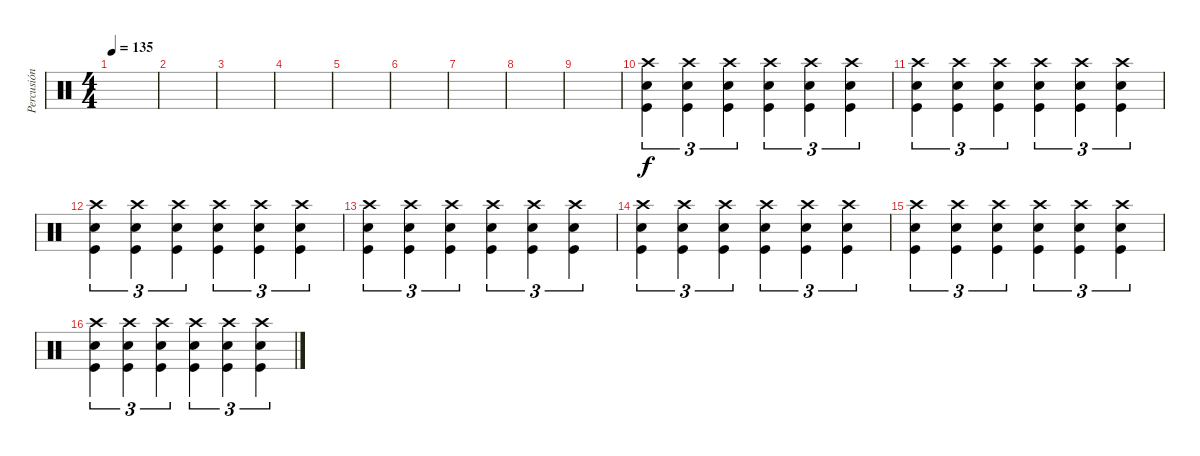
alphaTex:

\track ("Percusión" "Percusión") {instrument percussion}
\staff {score}
\articulation defaults
\ts (4 4)
\tempo 135
\clef neutral
\ks c
|
|
|
|
|
|
|
|
|
("Crash high (hit)" "Electric Snare (hit)" "Kick (hit)").4{tu (3 2)} ("Crash high (hit)" "Electric Snare (hit)" "Kick (hit)").4{tu (3 2)} ("Crash high (hit)" "Electric Snare (hit)" "Kick (hit)").4{tu (3 2)} ("Crash high (hit)" "Electric Snare (hit)" "Kick (hit)").4{tu (3 2)} ("Crash high (hit)" "Electric Snare (hit)" "Kick (hit)").4{tu (3 2)} ("Crash high (hit)" "Electric Snare (hit)" "Kick (hit)").4{tu (3 2)} |
("Crash high (hit)" "Electric Snare (hit)" "Kick (hit)").4{tu (3 2)} ("Crash high (hit)" "Electric Snare (hit)" "Kick (hit)").4{tu (3 2)} ("Crash high (hit)" "Electric Snare (hit)" "Kick (hit)").4{tu (3 2)} ("Crash high (hit)" "Electric Snare (hit)" "Kick (hit)").4{tu (3 2)} ("Crash high (hit)" "Electric Snare (hit)" "Kick (hit)").4{tu (3 2)} ("Crash high (hit)" "Electric Snare (hit)" "Kick (hit)").4{tu (3 2)} |
("Crash high (hit)" "Electric Snare (hit)" "Kick (hit)").4{tu (3 2)} ("Crash high (hit)" "Electric Snare (hit)" "Kick (hit)").4{tu (3 2)} ("Crash high (hit)" "Electric Snare (hit)" "Kick (hit)").4{tu (3 2)} ("Crash high (hit)" "Electric Snare (hit)" "Kick (hit)").4{tu (3 2)} ("Crash high (hit)" "Electric Snare (hit)" "Kick (hit)").4{tu (3 2)} ("Crash high (hit)" "Electric Snare (hit)" "Kick (hit)").4{tu (3 2)} |
("Crash high (hit)" "Electric Snare (hit)" "Kick (hit)").4{tu (3 2)} ("Crash high (hit)" "Electric Snare (hit)" "Kick (hit)").4{tu (3 2)} ("Crash high (hit)" "Electric Snare (hit)" "Kick (hit)").4{tu (3 2)} ("Crash high (hit)" "Electric Snare (hit)" "Kick (hit)").4{tu (3 2)} ("Crash high (hit)" "Electric Snare (hit)" "Kick (hit)").4{tu (3 2)} ("Crash high (hit)" "Electric Snare (hit)" "Kick (hit)").4{tu (3 2)} |
("Crash high (hit)" "Electric Snare (hit)" "Kick (hit)").4{tu (3 2)} ("Crash high (hit)" "Electric Snare (hit)" "Kick (hit)").4{tu (3 2)} ("Crash high (hit)" "Electric Snare (hit)" "Kick (hit)").4{tu (3 2)} ("Crash high (hit)" "Electric Snare (hit)" "Kick (hit)").4{tu (3 2)} ("Crash high (hit)" "Electric Snare (hit)" "Kick (hit)").4{tu (3 2)} ("Crash high (hit)" "Electric Snare (hit)" "Kick (hit)").4{tu (3 2)} |
("Crash high (hit)" "Electric Snare (hit)" "Kick (hit)").4{tu (3 2)} ("Crash high (hit)" "Electric Snare (hit)" "Kick (hit)").4{tu (3 2)} ("Crash high (hit)" "Electric Snare (hit)" "Kick (hit)").4{tu (3 2)} ("Crash high (hit)" "Electric Snare (hit)" "Kick (hit)").4{tu (3 2)} ("Crash high (hit)" "Electric Snare (hit)" "Kick (hit)").4{tu (3 2)} ("Crash high (hit)" "Electric Snare (hit)" "Kick (hit)").4{tu (3 2)} |
("Crash high (hit)" "Electric Snare (hit)" "Kick (hit)").4{tu (3 2)} ("Crash high (hit)" "Electric Snare (hit)" "Kick (hit)").4{tu (3 2)} ("Crash high (hit)" "Electric Snare (hit)" "Kick (hit)").4{tu (3 2)} ("Crash high (hit)" "Electric Snare (hit)" "Kick (hit)").4{tu (3 2)} ("Crash high (hit)" "Electric Snare (hit)" "Kick (hit)").4{tu (3 2)} ("Crash high (hit)" "Electric Snare (hit)" "Kick (hit)").4{tu (3 2)}
